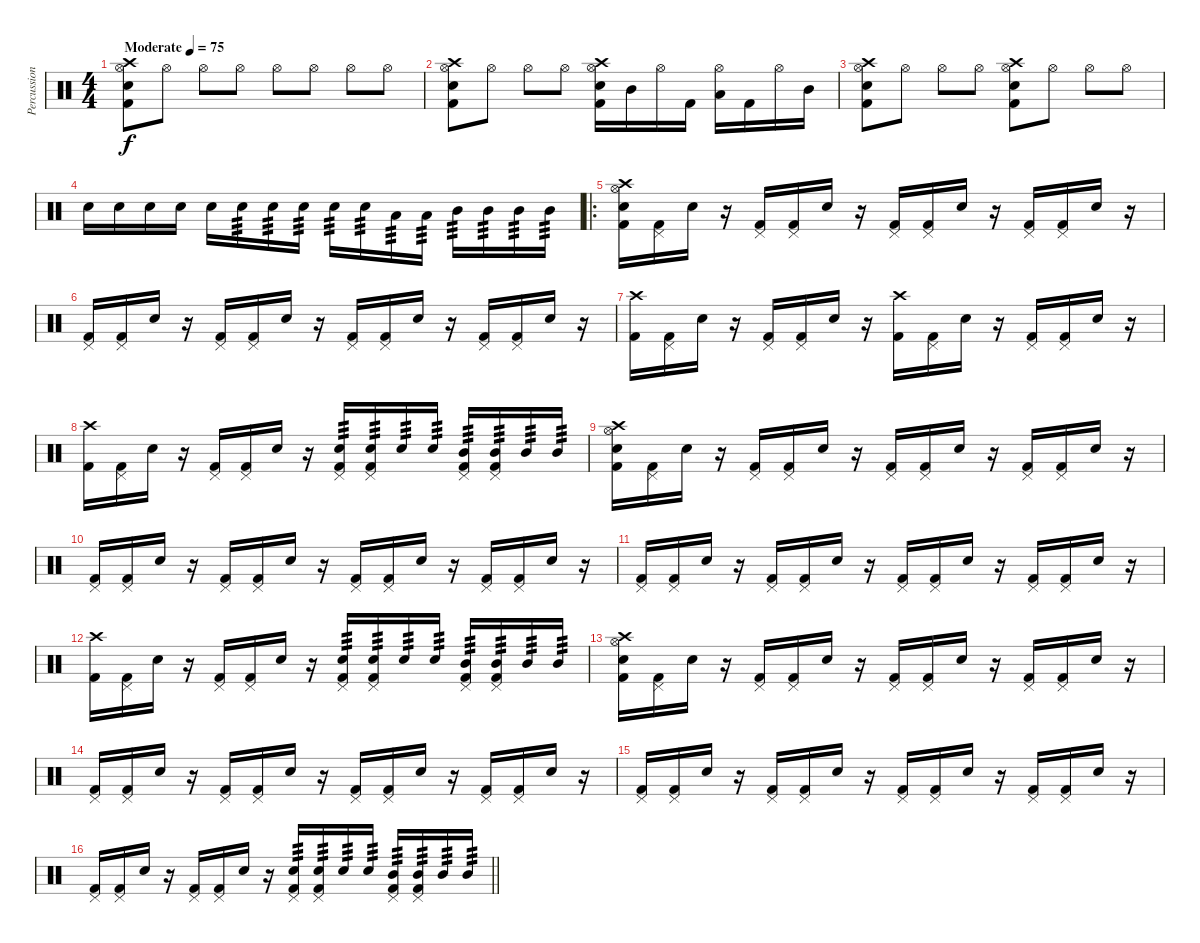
\track ("Percussion" "Percussion") {instrument percussion}
\staff {score}
\articulation defaults
\ts (4 4)
\tempo (75 "Moderate")
\clef neutral
\ks c
("Kick (hit) 2" "Snare (hit) 2" "Hi-Hat (open)" "Crash high (hit)").8{dy f} "Hi-Hat (open)".8 "Hi-Hat (open)".8 "Hi-Hat (open)".8 "Hi-Hat (open)".8 "Hi-Hat (open)".8 "Hi-Hat (open)".8 "Hi-Hat (open)".8 |
("Kick (hit) 2" "Snare (hit) 2" "Hi-Hat (open)" "Crash high (hit)").8 "Hi-Hat (open)".8 "Hi-Hat (open)".8 "Hi-Hat (open)".8 ("Kick (hit) 2" "Snare (hit) 2" "Hi-Hat (open)" "Crash high (hit)").16 "Mid Tom (hit)".16 "Hi-Hat (open)".16 "Kick (hit) 2".16 ("Low Tom (hit)" "Hi-Hat (open)").16 "Kick (hit) 2".16 "Hi-Hat (open)".16 "Mid Tom (hit)".16 |
("Kick (hit) 2" "Snare (hit) 2" "Hi-Hat (open)" "Crash high (hit)").8 "Hi-Hat (open)".8 "Hi-Hat (open)".8 "Hi-Hat (open)".8 ("Kick (hit) 2" "Snare (hit) 2" "Hi-Hat (open)" "Crash high (hit)").8 "Hi-Hat (open)".8 "Hi-Hat (open)".8 "Hi-Hat (open)".8 |
"Snare (hit) 2".16 "Snare (hit) 2".16 "Snare (hit) 2".16 "Snare (hit) 2".16 "Snare (hit) 2".16 "Snare (hit) 2".16{tp 3} "Snare (hit) 2".16{tp 3} "Snare (hit) 2".16{tp 3} "Snare (hit) 2".16{tp 3} "Snare (hit) 2".16{tp 3} "Low Tom (hit)".16{tp 3} "Low Tom (hit)".16{tp 3} "Mid Tom (hit)".16{tp 3} "Mid Tom (hit)".16{tp 3} "Mid Tom (hit)".16{tp 3} "Mid Tom (hit)".16{tp 3} |
\ro
("Kick (hit) 2" "Snare (hit) 2" "Hi-Hat (open)" "Crash high (hit)").16 ("Kick (hit) 2" "Pedal Hi-Hat (hit)").16 "Snare (hit) 2".16 r.16 ("Kick (hit) 2" "Pedal Hi-Hat (hit)").16 ("Kick (hit) 2" "Pedal Hi-Hat (hit)").16 "Snare (hit) 2".16 r.16 ("Kick (hit) 2" "Pedal Hi-Hat (hit)").16 ("Kick (hit) 2" "Pedal Hi-Hat (hit)").16 "Snare (hit) 2".16 r.16 ("Kick (hit) 2" "Pedal Hi-Hat (hit)").16 ("Kick (hit) 2" "Pedal Hi-Hat (hit)").16 "Snare (hit) 2".16 r.16 |
("Kick (hit) 2" "Pedal Hi-Hat (hit)").16 ("Kick (hit) 2" "Pedal Hi-Hat (hit)").16 "Snare (hit) 2".16 r.16 ("Kick (hit) 2" "Pedal Hi-Hat (hit)").16 ("Kick (hit) 2" "Pedal Hi-Hat (hit)").16 "Snare (hit) 2".16 r.16 ("Kick (hit) 2" "Pedal Hi-Hat (hit)").16 ("Kick (hit) 2" "Pedal Hi-Hat (hit)").16 "Snare (hit) 2".16 r.16 ("Kick (hit) 2" "Pedal Hi-Hat (hit)").16 ("Kick (hit) 2" "Pedal Hi-Hat (hit)").16 "Snare (hit) 2".16 r.16 |
("Kick (hit) 2" "Crash high (hit)").16 ("Kick (hit) 2" "Pedal Hi-Hat (hit)").16 "Snare (hit) 2".16 r.16 ("Kick (hit) 2" "Pedal Hi-Hat (hit)").16 ("Kick (hit) 2" "Pedal Hi-Hat (hit)").16 "Snare (hit) 2".16 r.16 ("Kick (hit) 2" "Crash high (hit)").16 ("Kick (hit) 2" "Pedal Hi-Hat (hit)").16 "Snare (hit) 2".16 r.16 ("Kick (hit) 2" "Pedal Hi-Hat (hit)").16 ("Kick (hit) 2" "Pedal Hi-Hat (hit)").16 "Snare (hit) 2".16 r.16 |
("Kick (hit) 2" "Crash high (hit)").16 ("Kick (hit) 2" "Pedal Hi-Hat (hit)").16 "Snare (hit) 2".16 r.16 ("Kick (hit) 2" "Pedal Hi-Hat (hit)").16 ("Kick (hit) 2" "Pedal Hi-Hat (hit)").16 "Snare (hit) 2".16 r.16 ("Kick (hit) 2" "Snare (hit) 2" "Pedal Hi-Hat (hit)").16{tp 3} ("Kick (hit) 2" "Snare (hit) 2" "Pedal Hi-Hat (hit)").16{tp 3} "Snare (hit) 2".16{tp 3} "Snare (hit) 2".16{tp 3} ("Kick (hit) 2" "Mid Tom (hit)" "Pedal Hi-Hat (hit)").16{tp 3} ("Kick (hit) 2" "Mid Tom (hit)" "Pedal Hi-Hat (hit)").16{tp 3} "Mid Tom (hit)".16{tp 3} "Mid Tom (hit)".16{tp 3} |
("Kick (hit) 2" "Snare (hit) 2" "Hi-Hat (open)" "Crash high (hit)").16 ("Kick (hit) 2" "Pedal Hi-Hat (hit)").16 "Snare (hit) 2".16 r.16 ("Kick (hit) 2" "Pedal Hi-Hat (hit)").16 ("Kick (hit) 2" "Pedal Hi-Hat (hit)").16 "Snare (hit) 2".16 r.16 ("Kick (hit) 2" "Pedal Hi-Hat (hit)").16 ("Kick (hit) 2" "Pedal Hi-Hat (hit)").16 "Snare (hit) 2".16 r.16 ("Kick (hit) 2" "Pedal Hi-Hat (hit)").16 ("Kick (hit) 2" "Pedal Hi-Hat (hit)").16 "Snare (hit) 2".16 r.16 |
("Kick (hit) 2" "Pedal Hi-Hat (hit)").16 ("Kick (hit) 2" "Pedal Hi-Hat (hit)").16 "Snare (hit) 2".16 r.16 ("Kick (hit) 2" "Pedal Hi-Hat (hit)").16 ("Kick (hit) 2" "Pedal Hi-Hat (hit)").16 "Snare (hit) 2".16 r.16 ("Kick (hit) 2" "Pedal Hi-Hat (hit)").16 ("Kick (hit) 2" "Pedal Hi-Hat (hit)").16 "Snare (hit) 2".16 r.16 ("Kick (hit) 2" "Pedal Hi-Hat (hit)").16 ("Kick (hit) 2" "Pedal Hi-Hat (hit)").16 "Snare (hit) 2".16 r.16 |
("Kick (hit) 2" "Pedal Hi-Hat (hit)").16 ("Kick (hit) 2" "Pedal Hi-Hat (hit)").16 "Snare (hit) 2".16 r.16 ("Kick (hit) 2" "Pedal Hi-Hat (hit)").16 ("Kick (hit) 2" "Pedal Hi-Hat (hit)").16 "Snare (hit) 2".16 r.16 ("Kick (hit) 2" "Pedal Hi-Hat (hit)").16 ("Kick (hit) 2" "Pedal Hi-Hat (hit)").16 "Snare (hit) 2".16 r.16 ("Kick (hit) 2" "Pedal Hi-Hat (hit)").16 ("Kick (hit) 2" "Pedal Hi-Hat (hit)").16 "Snare (hit) 2".16 r.16 |
("Kick (hit) 2" "Crash high (hit)").16 ("Kick (hit) 2" "Pedal Hi-Hat (hit)").16 "Snare (hit) 2".16 r.16 ("Kick (hit) 2" "Pedal Hi-Hat (hit)").16 ("Kick (hit) 2" "Pedal Hi-Hat (hit)").16 "Snare (hit) 2".16 r.16 ("Kick (hit) 2" "Snare (hit) 2" "Pedal Hi-Hat (hit)").16{tp 3} ("Kick (hit) 2" "Snare (hit) 2" "Pedal Hi-Hat (hit)").16{tp 3} "Snare (hit) 2".16{tp 3} "Snare (hit) 2".16{tp 3} ("Kick (hit) 2" "Mid Tom (hit)" "Pedal Hi-Hat (hit)").16{tp 3} ("Kick (hit) 2" "Mid Tom (hit)" "Pedal Hi-Hat (hit)").16{tp 3} "Mid Tom (hit)".16{tp 3} "Mid Tom (hit)".16{tp 3} |
("Kick (hit) 2" "Snare (hit) 2" "Hi-Hat (open)" "Crash high (hit)").16 ("Kick (hit) 2" "Pedal Hi-Hat (hit)").16 "Snare (hit) 2".16 r.16 ("Kick (hit) 2" "Pedal Hi-Hat (hit)").16 ("Kick (hit) 2" "Pedal Hi-Hat (hit)").16 "Snare (hit) 2".16 r.16 ("Kick (hit) 2" "Pedal Hi-Hat (hit)").16 ("Kick (hit) 2" "Pedal Hi-Hat (hit)").16 "Snare (hit) 2".16 r.16 ("Kick (hit) 2" "Pedal Hi-Hat (hit)").16 ("Kick (hit) 2" "Pedal Hi-Hat (hit)").16 "Snare (hit) 2".16 r.16 |
("Kick (hit) 2" "Pedal Hi-Hat (hit)").16 ("Kick (hit) 2" "Pedal Hi-Hat (hit)").16 "Snare (hit) 2".16 r.16 ("Kick (hit) 2" "Pedal Hi-Hat (hit)").16 ("Kick (hit) 2" "Pedal Hi-Hat (hit)").16 "Snare (hit) 2".16 r.16 ("Kick (hit) 2" "Pedal Hi-Hat (hit)").16 ("Kick (hit) 2" "Pedal Hi-Hat (hit)").16 "Snare (hit) 2".16 r.16 ("Kick (hit) 2" "Pedal Hi-Hat (hit)").16 ("Kick (hit) 2" "Pedal Hi-Hat (hit)").16 "Snare (hit) 2".16 r.16 |
("Kick (hit) 2" "Pedal Hi-Hat (hit)").16 ("Kick (hit) 2" "Pedal Hi-Hat (hit)").16 "Snare (hit) 2".16 r.16 ("Kick (hit) 2" "Pedal Hi-Hat (hit)").16 ("Kick (hit) 2" "Pedal Hi-Hat (hit)").16 "Snare (hit) 2".16 r.16 ("Kick (hit) 2" "Pedal Hi-Hat (hit)").16 ("Kick (hit) 2" "Pedal Hi-Hat (hit)").16 "Snare (hit) 2".16 r.16 ("Kick (hit) 2" "Pedal Hi-Hat (hit)").16 ("Kick (hit) 2" "Pedal Hi-Hat (hit)").16 "Snare (hit) 2".16 r.16 |
\barLineRight lightlight
("Kick (hit) 2" "Pedal Hi-Hat (hit)").16 ("Kick (hit) 2" "Pedal Hi-Hat (hit)").16 "Snare (hit) 2".16 r.16 ("Kick (hit) 2" "Pedal Hi-Hat (hit)").16 ("Kick (hit) 2" "Pedal Hi-Hat (hit)").16 "Snare (hit) 2".16 r.16 ("Kick (hit) 2" "Snare (hit) 2" "Pedal Hi-Hat (hit)").16{tp 3} ("Kick (hit) 2" "Snare (hit) 2" "Pedal Hi-Hat (hit)").16{tp 3} "Snare (hit) 2".16{tp 3} "Snare (hit) 2".16{tp 3} ("Kick (hit) 2" "Mid Tom (hit)" "Pedal Hi-Hat (hit)").16{tp 3} ("Kick (hit) 2" "Mid Tom (hit)" "Pedal Hi-Hat (hit)").16{tp 3} "Mid Tom (hit)".16{tp 3} "Mid Tom (hit)".16{tp 3}
